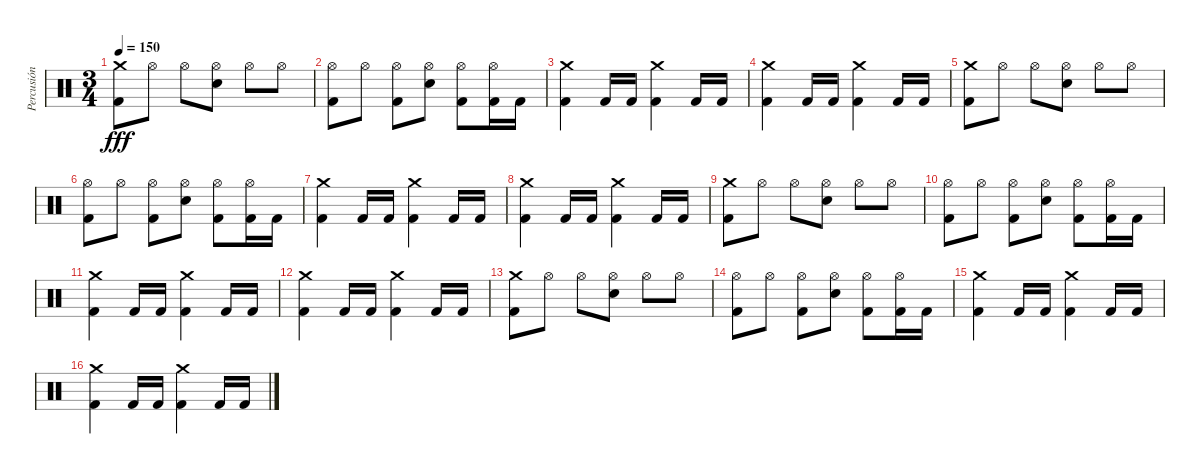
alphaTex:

\track ("Percusión" "Percusión") {instrument percussion}
\staff {score}
\articulation defaults
\ts (3 4)
\tempo 150
\clef neutral
\ks c
("Crash medium (hit)" "Kick (hit) 2").8{dy fff} "Hi-Hat (open)".8 "Hi-Hat (open)".8 ("Hi-Hat (open)" "Snare (hit) 2").8 "Hi-Hat (open)".8 "Hi-Hat (open)".8 |
("Hi-Hat (open)" "Kick (hit) 2").8 "Hi-Hat (open)".8 ("Hi-Hat (open)" "Kick (hit) 2").8 ("Hi-Hat (open)" "Snare (hit) 2").8 ("Hi-Hat (open)" "Kick (hit) 2").8 ("Hi-Hat (open)" "Kick (hit) 2").16 "Kick (hit) 2".16 |
("Crash medium (hit)" "Kick (hit) 2").4 "Kick (hit) 2".16 "Kick (hit) 2".16 ("Crash medium (hit)" "Kick (hit) 2").4 "Kick (hit) 2".16 "Kick (hit) 2".16 |
("Crash medium (hit)" "Kick (hit) 2").4 "Kick (hit) 2".16 "Kick (hit) 2".16 ("Crash medium (hit)" "Kick (hit) 2").4 "Kick (hit) 2".16 "Kick (hit) 2".16 |
("Crash medium (hit)" "Kick (hit) 2").8 "Hi-Hat (open)".8 "Hi-Hat (open)".8 ("Hi-Hat (open)" "Snare (hit) 2").8 "Hi-Hat (open)".8 "Hi-Hat (open)".8 |
("Hi-Hat (open)" "Kick (hit) 2").8 "Hi-Hat (open)".8 ("Hi-Hat (open)" "Kick (hit) 2").8 ("Hi-Hat (open)" "Snare (hit) 2").8 ("Hi-Hat (open)" "Kick (hit) 2").8 ("Hi-Hat (open)" "Kick (hit) 2").16 "Kick (hit) 2".16 |
("Crash medium (hit)" "Kick (hit) 2").4 "Kick (hit) 2".16 "Kick (hit) 2".16 ("Crash medium (hit)" "Kick (hit) 2").4 "Kick (hit) 2".16 "Kick (hit) 2".16 |
("Crash medium (hit)" "Kick (hit) 2").4 "Kick (hit) 2".16 "Kick (hit) 2".16 ("Crash medium (hit)" "Kick (hit) 2").4 "Kick (hit) 2".16 "Kick (hit) 2".16 |
("Crash medium (hit)" "Kick (hit) 2").8 "Hi-Hat (open)".8 "Hi-Hat (open)".8 ("Hi-Hat (open)" "Snare (hit) 2").8 "Hi-Hat (open)".8 "Hi-Hat (open)".8 |
("Hi-Hat (open)" "Kick (hit) 2").8 "Hi-Hat (open)".8 ("Hi-Hat (open)" "Kick (hit) 2").8 ("Hi-Hat (open)" "Snare (hit) 2").8 ("Hi-Hat (open)" "Kick (hit) 2").8 ("Hi-Hat (open)" "Kick (hit) 2").16 "Kick (hit) 2".16 |
("Crash medium (hit)" "Kick (hit) 2").4 "Kick (hit) 2".16 "Kick (hit) 2".16 ("Crash medium (hit)" "Kick (hit) 2").4 "Kick (hit) 2".16 "Kick (hit) 2".16 |
("Crash medium (hit)" "Kick (hit) 2").4 "Kick (hit) 2".16 "Kick (hit) 2".16 ("Crash medium (hit)" "Kick (hit) 2").4 "Kick (hit) 2".16 "Kick (hit) 2".16 |
("Crash medium (hit)" "Kick (hit) 2").8 "Hi-Hat (open)".8 "Hi-Hat (open)".8 ("Hi-Hat (open)" "Snare (hit) 2").8 "Hi-Hat (open)".8 "Hi-Hat (open)".8 |
("Hi-Hat (open)" "Kick (hit) 2").8 "Hi-Hat (open)".8 ("Hi-Hat (open)" "Kick (hit) 2").8 ("Hi-Hat (open)" "Snare (hit) 2").8 ("Hi-Hat (open)" "Kick (hit) 2").8 ("Hi-Hat (open)" "Kick (hit) 2").16 "Kick (hit) 2".16 |
("Crash medium (hit)" "Kick (hit) 2").4 "Kick (hit) 2".16 "Kick (hit) 2".16 ("Crash medium (hit)" "Kick (hit) 2").4 "Kick (hit) 2".16 "Kick (hit) 2".16 |
("Crash medium (hit)" "Kick (hit) 2").4 "Kick (hit) 2".16 "Kick (hit) 2".16 ("Crash medium (hit)" "Kick (hit) 2").4 "Kick (hit) 2".16 "Kick (hit) 2".16
